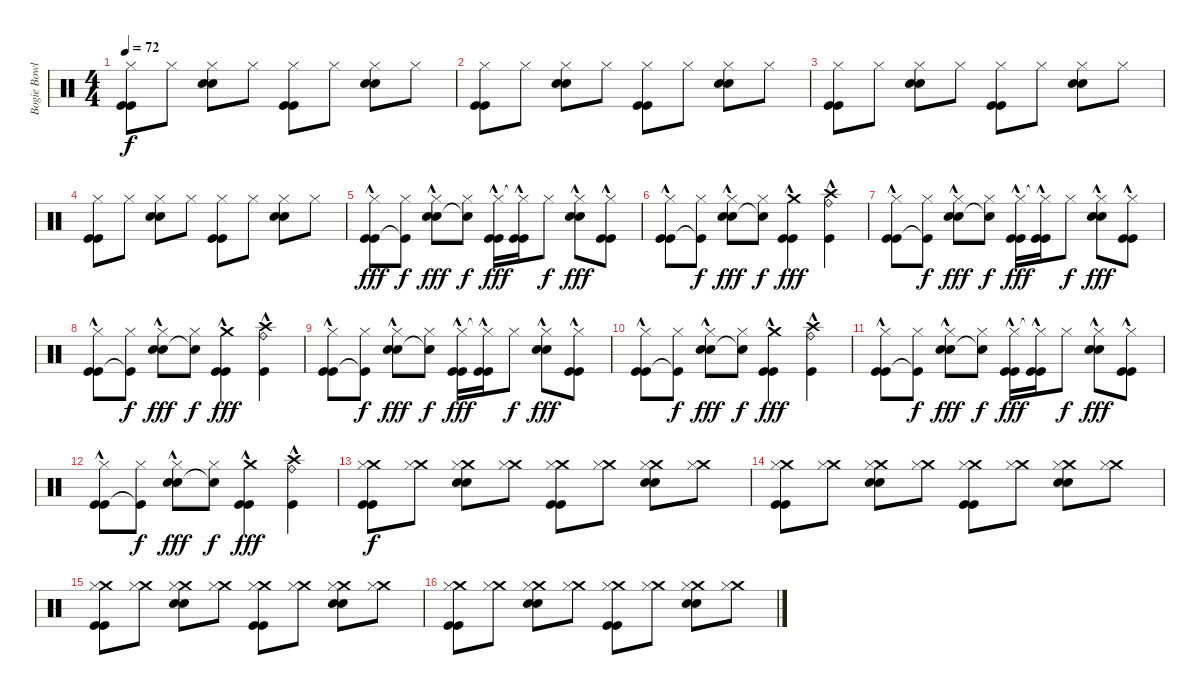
\track ("Bogie Bowles" "Bogie Bowl") {instrument percussion}
\staff {score}
\articulation defaults
\ts (4 4)
\tempo 72
\clef neutral
\ks c
("Hi-Hat (closed)" "Kick (hit)" "Kick (hit)").8{dy f} "Hi-Hat (closed)".8 ("Hi-Hat (closed)" "Snare (hit) 2" "Snare (hit) 2").8 "Hi-Hat (closed)".8 ("Hi-Hat (closed)" "Kick (hit)" "Kick (hit)").8 "Hi-Hat (closed)".8 ("Hi-Hat (closed)" "Snare (hit) 2" "Snare (hit) 2").8 "Hi-Hat (closed)".8 |
("Hi-Hat (closed)" "Kick (hit)" "Kick (hit)").8 "Hi-Hat (closed)".8 ("Hi-Hat (closed)" "Snare (hit) 2" "Snare (hit) 2").8 "Hi-Hat (closed)".8 ("Hi-Hat (closed)" "Kick (hit)" "Kick (hit)").8 "Hi-Hat (closed)".8 ("Hi-Hat (closed)" "Snare (hit) 2" "Snare (hit) 2").8 "Hi-Hat (closed)".8 |
("Hi-Hat (closed)" "Kick (hit)" "Kick (hit)").8 "Hi-Hat (closed)".8 ("Hi-Hat (closed)" "Snare (hit) 2" "Snare (hit) 2").8 "Hi-Hat (closed)".8 ("Hi-Hat (closed)" "Kick (hit)" "Kick (hit)").8 "Hi-Hat (closed)".8 ("Hi-Hat (closed)" "Snare (hit) 2" "Snare (hit) 2").8 "Hi-Hat (closed)".8 |
("Hi-Hat (closed)" "Kick (hit)" "Kick (hit)").8 "Hi-Hat (closed)".8 ("Hi-Hat (closed)" "Snare (hit) 2" "Snare (hit) 2").8 "Hi-Hat (closed)".8 ("Hi-Hat (closed)" "Kick (hit)" "Kick (hit)").8 "Hi-Hat (closed)".8 ("Hi-Hat (closed)" "Snare (hit) 2" "Snare (hit) 2").8 "Hi-Hat (closed)".8 |
("Hi-Hat (closed)" "Kick (hit)"{hac} "Kick (hit)"{hac}).8{dy fff} ("Hi-Hat (closed)" "Kick (hit)"{t}).8{dy f} ("Hi-Hat (closed)" "Snare (hit) 2"{hac} "Snare (hit) 2"{hac}).8{dy fff} ("Hi-Hat (closed)" "Snare (hit) 2"{t}).8{dy f} ("Hi-Hat (closed)" "Kick (hit)"{hac} "Kick (hit)"{hac}).16{dy fff} ("Hi-Hat (closed)"{t} "Kick (hit)"{hac} "Kick (hit)"{hac}).16 "Hi-Hat (closed)".8{dy f} ("Hi-Hat (closed)" "Snare (hit) 2"{hac} "Snare (hit) 2"{hac}).8{dy fff} ("Hi-Hat (closed)" "Kick (hit)"{hac} "Kick (hit)"{hac}).8 |
("Hi-Hat (closed)" "Kick (hit)"{hac} "Kick (hit)"{hac}).8 ("Hi-Hat (closed)" "Kick (hit)"{t}).8{dy f} ("Hi-Hat (closed)" "Snare (hit) 2"{hac} "Snare (hit) 2"{hac}).8{dy fff} ("Hi-Hat (closed)" "Snare (hit) 2"{t}).8{dy f} ("Crash medium (hit)" "Kick (hit)"{hac} "Kick (hit)"{hac}).4{dy fff} ("Crash high (hit)" "Kick (hit)"{hac} "Ride (bell)"{hac}).4 |
("Hi-Hat (closed)" "Kick (hit)"{hac} "Kick (hit)"{hac}).8 ("Hi-Hat (closed)" "Kick (hit)"{t}).8{dy f} ("Hi-Hat (closed)" "Snare (hit) 2"{hac} "Snare (hit) 2"{hac}).8{dy fff} ("Hi-Hat (closed)" "Snare (hit) 2"{t}).8{dy f} ("Hi-Hat (closed)" "Kick (hit)"{hac} "Kick (hit)"{hac}).16{dy fff} ("Hi-Hat (closed)"{t} "Kick (hit)"{hac} "Kick (hit)"{hac}).16 "Hi-Hat (closed)".8{dy f} ("Hi-Hat (closed)" "Snare (hit) 2"{hac} "Snare (hit) 2"{hac}).8{dy fff} ("Hi-Hat (closed)" "Kick (hit)"{hac} "Kick (hit)"{hac}).8 |
("Hi-Hat (closed)" "Kick (hit)"{hac} "Kick (hit)"{hac}).8 ("Hi-Hat (closed)" "Kick (hit)"{t}).8{dy f} ("Hi-Hat (closed)" "Snare (hit) 2"{hac} "Snare (hit) 2"{hac}).8{dy fff} ("Hi-Hat (closed)" "Snare (hit) 2"{t}).8{dy f} ("Crash medium (hit)" "Kick (hit)"{hac} "Kick (hit)"{hac}).4{dy fff} ("Crash high (hit)" "Kick (hit)"{hac} "Ride (bell)"{hac}).4 |
("Hi-Hat (closed)" "Kick (hit)"{hac} "Kick (hit)"{hac}).8 ("Hi-Hat (closed)" "Kick (hit)"{t}).8{dy f} ("Hi-Hat (closed)" "Snare (hit) 2"{hac} "Snare (hit) 2"{hac}).8{dy fff} ("Hi-Hat (closed)" "Snare (hit) 2"{t}).8{dy f} ("Hi-Hat (closed)" "Kick (hit)"{hac} "Kick (hit)"{hac}).16{dy fff} ("Hi-Hat (closed)"{t} "Kick (hit)"{hac} "Kick (hit)"{hac}).16 "Hi-Hat (closed)".8{dy f} ("Hi-Hat (closed)" "Snare (hit) 2"{hac} "Snare (hit) 2"{hac}).8{dy fff} ("Hi-Hat (closed)" "Kick (hit)"{hac} "Kick (hit)"{hac}).8 |
("Hi-Hat (closed)" "Kick (hit)"{hac} "Kick (hit)"{hac}).8 ("Hi-Hat (closed)" "Kick (hit)"{t}).8{dy f} ("Hi-Hat (closed)" "Snare (hit) 2"{hac} "Snare (hit) 2"{hac}).8{dy fff} ("Hi-Hat (closed)" "Snare (hit) 2"{t}).8{dy f} ("Crash medium (hit)" "Kick (hit)"{hac} "Kick (hit)"{hac}).4{dy fff} ("Crash high (hit)" "Kick (hit)"{hac} "Ride (bell)"{hac}).4 |
("Hi-Hat (closed)" "Kick (hit)"{hac} "Kick (hit)"{hac}).8 ("Hi-Hat (closed)" "Kick (hit)"{t}).8{dy f} ("Hi-Hat (closed)" "Snare (hit) 2"{hac} "Snare (hit) 2"{hac}).8{dy fff} ("Hi-Hat (closed)" "Snare (hit) 2"{t}).8{dy f} ("Hi-Hat (closed)" "Kick (hit)"{hac} "Kick (hit)"{hac}).16{dy fff} ("Hi-Hat (closed)"{t} "Kick (hit)"{hac} "Kick (hit)"{hac}).16 "Hi-Hat (closed)".8{dy f} ("Hi-Hat (closed)" "Snare (hit) 2"{hac} "Snare (hit) 2"{hac}).8{dy fff} ("Hi-Hat (closed)" "Kick (hit)"{hac} "Kick (hit)"{hac}).8 |
("Hi-Hat (closed)" "Kick (hit)"{hac} "Kick (hit)"{hac}).8 ("Hi-Hat (closed)" "Kick (hit)"{t}).8{dy f} ("Hi-Hat (closed)" "Snare (hit) 2"{hac} "Snare (hit) 2"{hac}).8{dy fff} ("Hi-Hat (closed)" "Snare (hit) 2"{t}).8{dy f} ("Crash medium (hit)" "Kick (hit)"{hac} "Kick (hit)"{hac}).4{dy fff} ("Crash high (hit)" "Kick (hit)"{hac} "Ride (bell)"{hac}).4 |
("Crash medium (hit)" "Hi-Hat (closed)" "Kick (hit)" "Kick (hit)").8{dy f} ("Crash medium (hit)" "Hi-Hat (closed)").8 ("Crash medium (hit)" "Hi-Hat (closed)" "Snare (hit) 2" "Snare (hit) 2").8 ("Crash medium (hit)" "Hi-Hat (closed)").8 ("Crash medium (hit)" "Hi-Hat (closed)" "Kick (hit)" "Kick (hit)").8 ("Crash medium (hit)" "Hi-Hat (closed)").8 ("Crash medium (hit)" "Hi-Hat (closed)" "Snare (hit) 2" "Snare (hit) 2").8 ("Crash medium (hit)" "Hi-Hat (closed)").8 |
("Crash medium (hit)" "Hi-Hat (closed)" "Kick (hit)" "Kick (hit)").8 ("Crash medium (hit)" "Hi-Hat (closed)").8 ("Crash medium (hit)" "Hi-Hat (closed)" "Snare (hit) 2" "Snare (hit) 2").8 ("Crash medium (hit)" "Hi-Hat (closed)").8 ("Crash medium (hit)" "Hi-Hat (closed)" "Kick (hit)" "Kick (hit)").8 ("Crash medium (hit)" "Hi-Hat (closed)").8 ("Crash medium (hit)" "Hi-Hat (closed)" "Snare (hit) 2" "Snare (hit) 2").8 ("Crash medium (hit)" "Hi-Hat (closed)").8 |
("Crash medium (hit)" "Hi-Hat (closed)" "Kick (hit)" "Kick (hit)").8 ("Crash medium (hit)" "Hi-Hat (closed)").8 ("Crash medium (hit)" "Hi-Hat (closed)" "Snare (hit) 2" "Snare (hit) 2").8 ("Crash medium (hit)" "Hi-Hat (closed)").8 ("Crash medium (hit)" "Hi-Hat (closed)" "Kick (hit)" "Kick (hit)").8 ("Crash medium (hit)" "Hi-Hat (closed)").8 ("Crash medium (hit)" "Hi-Hat (closed)" "Snare (hit) 2" "Snare (hit) 2").8 ("Crash medium (hit)" "Hi-Hat (closed)").8 |
("Crash medium (hit)" "Hi-Hat (closed)" "Kick (hit)" "Kick (hit)").8 ("Crash medium (hit)" "Hi-Hat (closed)").8 ("Crash medium (hit)" "Hi-Hat (closed)" "Snare (hit) 2" "Snare (hit) 2").8 ("Crash medium (hit)" "Hi-Hat (closed)").8 ("Crash medium (hit)" "Hi-Hat (closed)" "Kick (hit)" "Kick (hit)").8 ("Crash medium (hit)" "Hi-Hat (closed)").8 ("Crash medium (hit)" "Hi-Hat (closed)" "Snare (hit) 2" "Snare (hit) 2").8 ("Crash medium (hit)" "Hi-Hat (closed)").8
